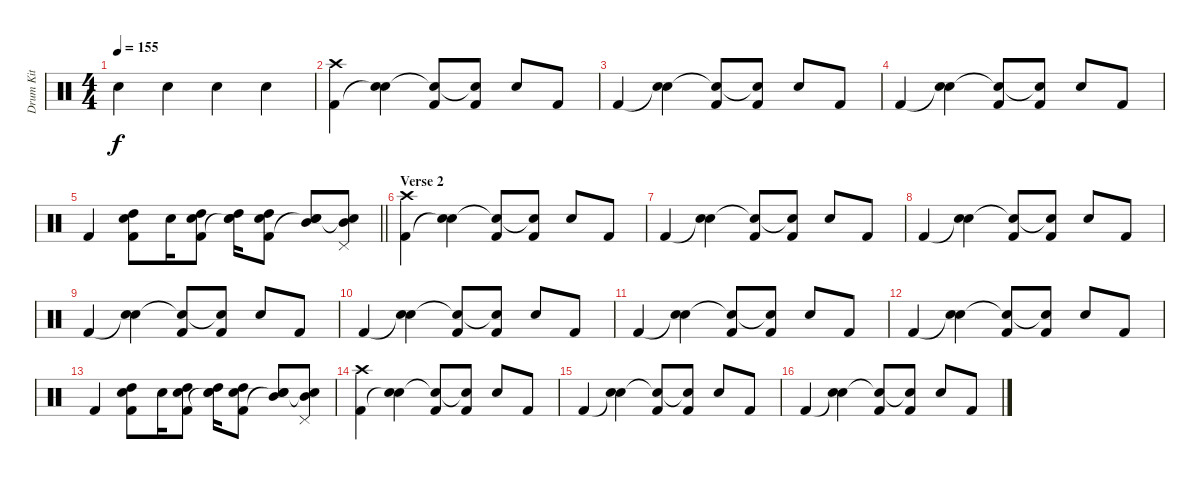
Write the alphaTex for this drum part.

\track ("Drum Kit" "Drum Kit") {instrument percussion}
\staff {score}
\articulation defaults
\ts (4 4)
\tempo 155
\clef neutral
\ks c "Snare (hit) 2".4{dy f} "Snare (hit) 2".4 "Snare (hit) 2".4 "Snare (hit) 2".4
|
("Kick (hit) 2" "Crash high (hit)").4 ("Snare (hit)"{t} "Snare (hit) 2").4 ("Kick (hit) 2" "Snare (hit)"{t}).8 ("Kick (hit) 2" "Snare (hit)"{t}).8 "Snare (hit) 2".8 "Kick (hit) 2".8 |
"Kick (hit) 2".4 ("Snare (hit)"{t} "Snare (hit) 2").4 ("Kick (hit) 2" "Snare (hit)"{t}).8 ("Kick (hit) 2" "Snare (hit)"{t}).8 "Snare (hit) 2".8 "Kick (hit) 2".8 |
"Kick (hit) 2".4 ("Snare (hit)"{t} "Snare (hit) 2").4 ("Kick (hit) 2" "Snare (hit)"{t}).8 ("Kick (hit) 2" "Snare (hit)"{t}).8 "Snare (hit) 2".8 "Kick (hit) 2".8 |
\barLineRight lightlight "Kick (hit) 2".4
("Kick (hit) 2" "High Tom (hit)" "Snare (hit) 2").8 "Snare (hit) 2".16 ("Kick (hit) 2" "High Tom (hit)" "Snare (hit) 2").8 ("Snare (hit)"{t} "High Tom (hit)" "Snare (hit) 2").16 ("Kick (hit) 2" "High Tom (hit)" "Snare (hit) 2").8 ("Snare (hit)"{t} "Mid Tom (hit)" "Snare (hit) 2").8 ("Snare (hit)"{t} "Mid Tom (hit)" "Pedal Hi-Hat (hit)").8 |
\section ("" "Verse 2")
("Kick (hit) 2" "Crash high (hit)").4 ("Snare (hit)"{t} "Snare (hit) 2").4 ("Kick (hit) 2" "Snare (hit)"{t}).8 ("Kick (hit) 2" "Snare (hit)"{t}).8 "Snare (hit) 2".8 "Kick (hit) 2".8 |
"Kick (hit) 2".4 ("Snare (hit)"{t} "Snare (hit) 2").4 ("Kick (hit) 2" "Snare (hit)"{t}).8 ("Kick (hit) 2" "Snare (hit)"{t}).8 "Snare (hit) 2".8 "Kick (hit) 2".8 |
"Kick (hit) 2".4 ("Snare (hit)"{t} "Snare (hit) 2").4 ("Kick (hit) 2" "Snare (hit)"{t}).8 ("Kick (hit) 2" "Snare (hit)"{t}).8 "Snare (hit) 2".8 "Kick (hit) 2".8 |
"Kick (hit) 2".4 ("Snare (hit)"{t} "Snare (hit) 2").4 ("Kick (hit) 2" "Snare (hit)"{t}).8 ("Kick (hit) 2" "Snare (hit)"{t}).8 "Snare (hit) 2".8 "Kick (hit) 2".8 |
"Kick (hit) 2".4 ("Snare (hit)"{t} "Snare (hit) 2").4 ("Kick (hit) 2" "Snare (hit)"{t}).8 ("Kick (hit) 2" "Snare (hit)"{t}).8 "Snare (hit) 2".8 "Kick (hit) 2".8 |
"Kick (hit) 2".4 ("Snare (hit)"{t} "Snare (hit) 2").4 ("Kick (hit) 2" "Snare (hit)"{t}).8 ("Kick (hit) 2" "Snare (hit)"{t}).8 "Snare (hit) 2".8 "Kick (hit) 2".8 |
"Kick (hit) 2".4 ("Snare (hit)"{t} "Snare (hit) 2").4 ("Kick (hit) 2" "Snare (hit)"{t}).8 ("Kick (hit) 2" "Snare (hit)"{t}).8 "Snare (hit) 2".8 "Kick (hit) 2".8 |
"Kick (hit) 2".4 ("Kick (hit) 2" "High Tom (hit)" "Snare (hit) 2").8 "Snare (hit) 2".16 ("Kick (hit) 2" "High Tom (hit)" "Snare (hit) 2").8 ("Snare (hit)"{t} "High Tom (hit)" "Snare (hit) 2").16 ("Kick (hit) 2" "High Tom (hit)" "Snare (hit) 2").8 ("Snare (hit)"{t} "Mid Tom (hit)" "Snare (hit) 2").8 ("Snare (hit)"{t} "Mid Tom (hit)" "Pedal Hi-Hat (hit)").8 |
("Kick (hit) 2" "Crash high (hit)").4 ("Snare (hit)"{t} "Snare (hit) 2").4 ("Kick (hit) 2" "Snare (hit)"{t}).8 ("Kick (hit) 2" "Snare (hit)"{t}).8 "Snare (hit) 2".8 "Kick (hit) 2".8 |
"Kick (hit) 2".4 ("Snare (hit)"{t} "Snare (hit) 2").4 ("Kick (hit) 2" "Snare (hit)"{t}).8 ("Kick (hit) 2" "Snare (hit)"{t}).8 "Snare (hit) 2".8 "Kick (hit) 2".8 |
"Kick (hit) 2".4 ("Snare (hit)"{t} "Snare (hit) 2").4 ("Kick (hit) 2" "Snare (hit)"{t}).8 ("Kick (hit) 2" "Snare (hit)"{t}).8 "Snare (hit) 2".8 "Kick (hit) 2".8
